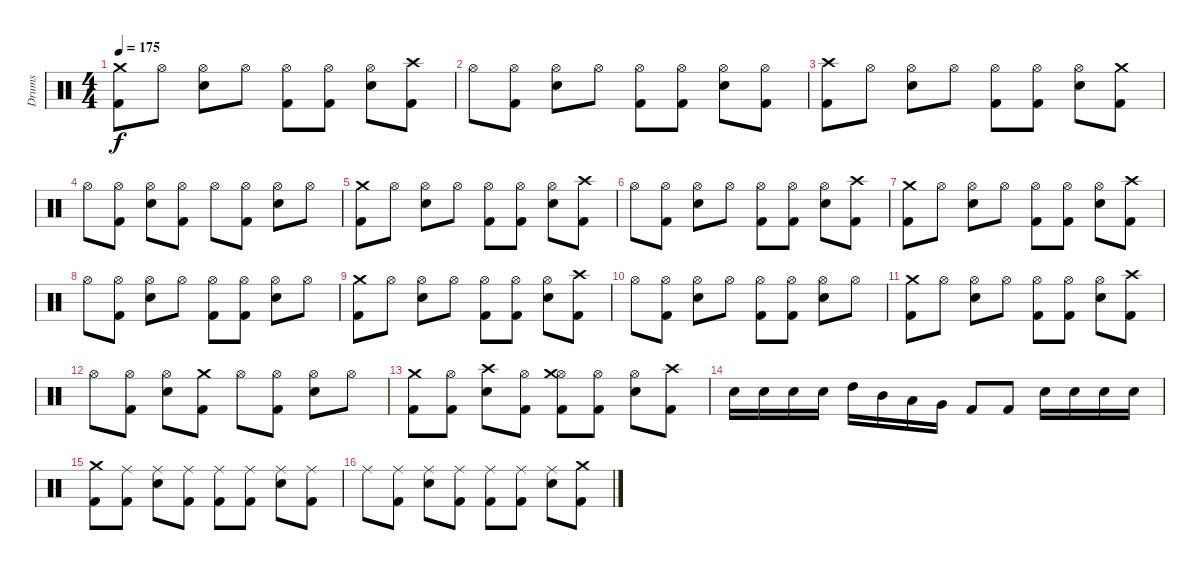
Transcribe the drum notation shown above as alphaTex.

\track ("Drums" "Drums") {instrument percussion}
\staff {score}
\articulation defaults
\ts (4 4)
\tempo 175
\clef neutral
\ks c
("Kick (hit) 2" "Crash medium (hit)").8{dy f} "Hi-Hat (open)".8 ("Snare (hit) 2" "Hi-Hat (open)").8 "Hi-Hat (open)".8 ("Kick (hit) 2" "Hi-Hat (open)").8 ("Kick (hit) 2" "Hi-Hat (open)").8 ("Snare (hit) 2" "Hi-Hat (open)").8 ("Kick (hit) 2" "Crash high (hit)").8 |
"Hi-Hat (open)".8 ("Kick (hit) 2" "Hi-Hat (open)").8 ("Snare (hit) 2" "Hi-Hat (open)").8 "Hi-Hat (open)".8 ("Kick (hit) 2" "Hi-Hat (open)").8 ("Kick (hit) 2" "Hi-Hat (open)").8 ("Snare (hit) 2" "Hi-Hat (open)").8 ("Kick (hit) 2" "Hi-Hat (open)").8 |
("Kick (hit) 2" "Crash high (hit)").8 "Hi-Hat (open)".8 ("Snare (hit) 2" "Hi-Hat (open)").8 "Hi-Hat (open)".8 ("Kick (hit) 2" "Hi-Hat (open)").8 ("Kick (hit) 2" "Hi-Hat (open)").8 ("Snare (hit) 2" "Hi-Hat (open)").8 ("Kick (hit) 2" "Crash medium (hit)").8 |
"Hi-Hat (open)".8 ("Kick (hit) 2" "Hi-Hat (open)").8 ("Snare (hit) 2" "Hi-Hat (open)").8 ("Kick (hit) 2" "Hi-Hat (open)").8 "Hi-Hat (open)".8 ("Kick (hit) 2" "Hi-Hat (open)").8 ("Snare (hit) 2" "Hi-Hat (open)").8 "Hi-Hat (open)".8 |
("Kick (hit) 2" "Crash medium (hit)").8 "Hi-Hat (open)".8 ("Snare (hit) 2" "Hi-Hat (open)").8 "Hi-Hat (open)".8 ("Kick (hit) 2" "Hi-Hat (open)").8 ("Kick (hit) 2" "Hi-Hat (open)").8 ("Snare (hit) 2" "Hi-Hat (open)").8 ("Kick (hit) 2" "Crash high (hit)").8 |
"Hi-Hat (open)".8 ("Kick (hit) 2" "Hi-Hat (open)").8 ("Snare (hit) 2" "Hi-Hat (open)").8 "Hi-Hat (open)".8 ("Kick (hit) 2" "Hi-Hat (open)").8 ("Kick (hit) 2" "Hi-Hat (open)").8 ("Snare (hit) 2" "Hi-Hat (open)").8 ("Kick (hit) 2" "Crash high (hit)").8 |
("Kick (hit) 2" "Crash medium (hit)").8 "Hi-Hat (open)".8 ("Snare (hit) 2" "Hi-Hat (open)").8 "Hi-Hat (open)".8 ("Kick (hit) 2" "Hi-Hat (open)").8 ("Kick (hit) 2" "Hi-Hat (open)").8 ("Snare (hit) 2" "Hi-Hat (open)").8 ("Kick (hit) 2" "Crash high (hit)").8 |
"Hi-Hat (open)".8 ("Kick (hit) 2" "Hi-Hat (open)").8 ("Snare (hit) 2" "Hi-Hat (open)").8 "Hi-Hat (open)".8 ("Kick (hit) 2" "Hi-Hat (open)").8 ("Kick (hit) 2" "Hi-Hat (open)").8 ("Snare (hit) 2" "Hi-Hat (open)").8 "Hi-Hat (open)".8 |
("Kick (hit) 2" "Crash medium (hit)").8 "Hi-Hat (open)".8 ("Snare (hit) 2" "Hi-Hat (open)").8 "Hi-Hat (open)".8 ("Kick (hit) 2" "Hi-Hat (open)").8 ("Kick (hit) 2" "Hi-Hat (open)").8 ("Snare (hit) 2" "Hi-Hat (open)").8 ("Kick (hit) 2" "Crash high (hit)").8 |
"Hi-Hat (open)".8 ("Kick (hit) 2" "Hi-Hat (open)").8 ("Snare (hit) 2" "Hi-Hat (open)").8 "Hi-Hat (open)".8 ("Kick (hit) 2" "Hi-Hat (open)").8 ("Kick (hit) 2" "Hi-Hat (open)").8 ("Snare (hit) 2" "Hi-Hat (open)").8 "Hi-Hat (open)".8 |
("Kick (hit) 2" "Crash medium (hit)").8 "Hi-Hat (open)".8 ("Snare (hit) 2" "Hi-Hat (open)").8 "Hi-Hat (open)".8 ("Kick (hit) 2" "Hi-Hat (open)").8 ("Kick (hit) 2" "Hi-Hat (open)").8 ("Snare (hit) 2" "Hi-Hat (open)").8 ("Kick (hit) 2" "Crash high (hit)").8 |
"Hi-Hat (open)".8 ("Kick (hit) 2" "Hi-Hat (open)").8 ("Snare (hit) 2" "Hi-Hat (open)").8 ("Kick (hit) 2" "Crash medium (hit)").8 "Hi-Hat (open)".8 ("Kick (hit) 2" "Hi-Hat (open)").8 ("Snare (hit) 2" "Hi-Hat (open)").8 "Hi-Hat (open)".8 |
("Kick (hit) 2" "Crash medium (hit)").8 ("Kick (hit) 2" "Hi-Hat (open)").8 ("Snare (hit) 2" "Crash high (hit)").8 ("Kick (hit) 2" "Hi-Hat (open)").8 ("Kick (hit) 2" "Hi-Hat (open)" "Crash medium (hit)").8 ("Kick (hit) 2" "Hi-Hat (open)").8 ("Snare (hit) 2" "Hi-Hat (open)").8 ("Kick (hit) 2" "Crash high (hit)").8 |
"Snare (hit) 2".16 "Snare (hit) 2".16 "Snare (hit) 2".16 "Snare (hit) 2".16 "High Tom (hit)".16 "Mid Tom (hit)".16 "Low Tom (hit)".16 "Very Low Tom (hit)".16 "Kick (hit) 2".8 "Kick (hit) 2".8 "Snare (hit) 2".16 "Snare (hit) 2".16 "Snare (hit) 2".16 "Snare (hit) 2".16 |
("Kick (hit) 2" "Crash medium (hit)").8 ("Kick (hit) 2" "Ride (middle)").8 ("Snare (hit) 2" "Ride (middle)").8 ("Kick (hit) 2" "Ride (middle)").8 ("Kick (hit) 2" "Ride (middle)").8 ("Kick (hit) 2" "Ride (middle)").8 ("Snare (hit) 2" "Ride (middle)").8 ("Kick (hit) 2" "Ride (middle)").8 |
"Ride (middle)".8 ("Kick (hit) 2" "Ride (middle)").8 ("Snare (hit) 2" "Ride (middle)").8 ("Kick (hit) 2" "Ride (middle)").8 ("Kick (hit) 2" "Ride (middle)").8 ("Kick (hit) 2" "Ride (middle)").8 ("Snare (hit) 2" "Ride (middle)").8 ("Kick (hit) 2" "Crash medium (hit)").8
